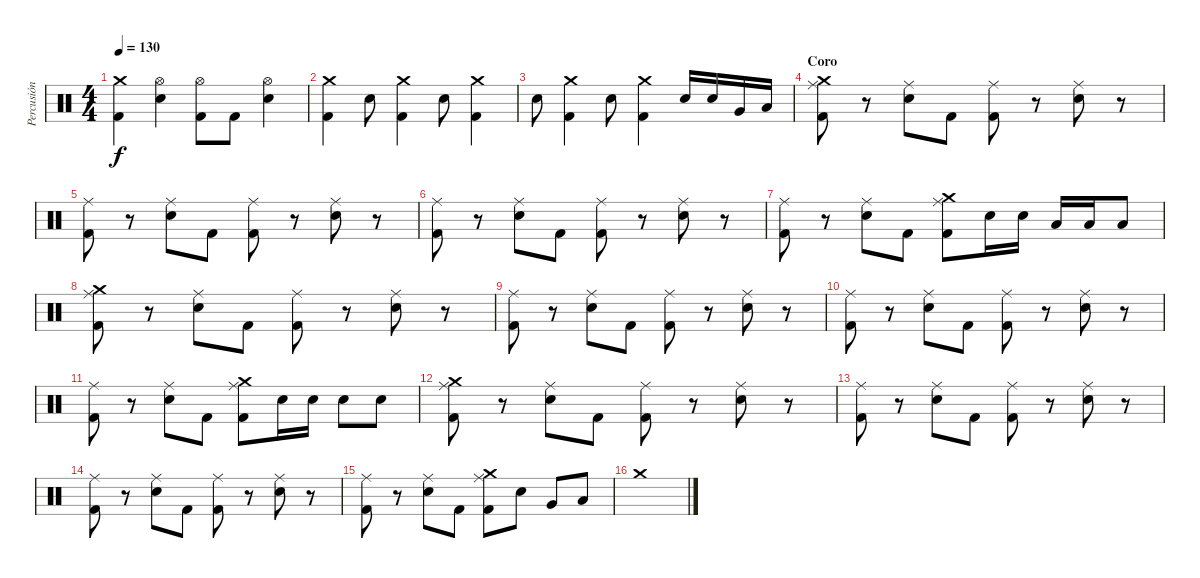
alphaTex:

\track ("Percusión" "Percusión") {instrument percussion}
\staff {score}
\articulation defaults
\ts (4 4)
\tempo 130
\clef neutral
\ks c
("Crash medium (hit)" "Kick (hit) 2").4{dy f} ("Hi-Hat (open)" "Electric Snare (hit)").4 ("Hi-Hat (open)" "Kick (hit) 2").8 "Kick (hit) 2".8 ("Hi-Hat (open)" "Electric Snare (hit)").4 |
("Crash medium (hit)" "Kick (hit) 2").4 "Electric Snare (hit)".8 ("Crash medium (hit)" "Kick (hit) 2").4 "Electric Snare (hit)".8 ("Crash medium (hit)" "Kick (hit) 2").4 |
"Electric Snare (hit)".8 ("Crash medium (hit)" "Kick (hit) 2").4 "Electric Snare (hit)".8 ("Crash medium (hit)" "Kick (hit) 2").4 "Electric Snare (hit)".16 "Electric Snare (hit)".16 "Very Low Tom (hit)".16 "Low Floor Tom (hit)".16 |
\section ("" "Coro")
("Crash medium (hit)" "Ride (middle)" "Kick (hit) 2").8 r.8 ("Ride (middle)" "Electric Snare (hit)").8 "Kick (hit) 2".8 ("Ride (middle)" "Kick (hit) 2").8 r.8 ("Ride (middle)" "Electric Snare (hit)").8 r.8 |
("Ride (middle)" "Kick (hit) 2").8 r.8 ("Ride (middle)" "Electric Snare (hit)").8 "Kick (hit) 2".8 ("Ride (middle)" "Kick (hit) 2").8 r.8 ("Ride (middle)" "Electric Snare (hit)").8 r.8 |
("Ride (middle)" "Kick (hit) 2").8 r.8 ("Ride (middle)" "Electric Snare (hit)").8 "Kick (hit) 2".8 ("Ride (middle)" "Kick (hit) 2").8 r.8 ("Ride (middle)" "Electric Snare (hit)").8 r.8 |
("Ride (middle)" "Kick (hit) 2").8 r.8 ("Ride (middle)" "Electric Snare (hit)").8 "Kick (hit) 2".8 ("Crash medium (hit)" "Ride (middle)" "Kick (hit) 2").8 "Electric Snare (hit)".16 "Electric Snare (hit)".16 "Low Tom (hit)".16 "Low Tom (hit)".16 "Low Floor Tom (hit)".8 |
("Crash medium (hit)" "Ride (middle)" "Kick (hit) 2").8 r.8 ("Ride (middle)" "Electric Snare (hit)").8 "Kick (hit) 2".8 ("Ride (middle)" "Kick (hit) 2").8 r.8 ("Ride (middle)" "Electric Snare (hit)").8 r.8 |
("Ride (middle)" "Kick (hit) 2").8 r.8 ("Ride (middle)" "Electric Snare (hit)").8 "Kick (hit) 2".8 ("Ride (middle)" "Kick (hit) 2").8 r.8 ("Ride (middle)" "Electric Snare (hit)").8 r.8 |
("Ride (middle)" "Kick (hit) 2").8 r.8 ("Ride (middle)" "Electric Snare (hit)").8 "Kick (hit) 2".8 ("Ride (middle)" "Kick (hit) 2").8 r.8 ("Ride (middle)" "Electric Snare (hit)").8 r.8 |
("Ride (middle)" "Kick (hit) 2").8 r.8 ("Ride (middle)" "Electric Snare (hit)").8 "Kick (hit) 2".8 ("Crash medium (hit)" "Ride (middle)" "Kick (hit) 2").8 "Electric Snare (hit)".16 "Electric Snare (hit)".16 "Electric Snare (hit)".8 "Electric Snare (hit)".8 |
("Crash medium (hit)" "Ride (middle)" "Kick (hit) 2").8 r.8 ("Ride (middle)" "Electric Snare (hit)").8 "Kick (hit) 2".8 ("Ride (middle)" "Kick (hit) 2").8 r.8 ("Ride (middle)" "Electric Snare (hit)").8 r.8 |
("Ride (middle)" "Kick (hit) 2").8 r.8 ("Ride (middle)" "Electric Snare (hit)").8 "Kick (hit) 2".8 ("Ride (middle)" "Kick (hit) 2").8 r.8 ("Ride (middle)" "Electric Snare (hit)").8 r.8 |
("Ride (middle)" "Kick (hit) 2").8 r.8 ("Ride (middle)" "Electric Snare (hit)").8 "Kick (hit) 2".8 ("Ride (middle)" "Kick (hit) 2").8 r.8 ("Ride (middle)" "Electric Snare (hit)").8 r.8 |
("Ride (middle)" "Kick (hit) 2").8 r.8 ("Ride (middle)" "Electric Snare (hit)").8 "Kick (hit) 2".8 ("Crash medium (hit)" "Ride (middle)" "Kick (hit) 2").8 "Electric Snare (hit)".8 "Very Low Tom (hit)".8 "Low Floor Tom (hit)".8 |
"Crash medium (hit)".1
